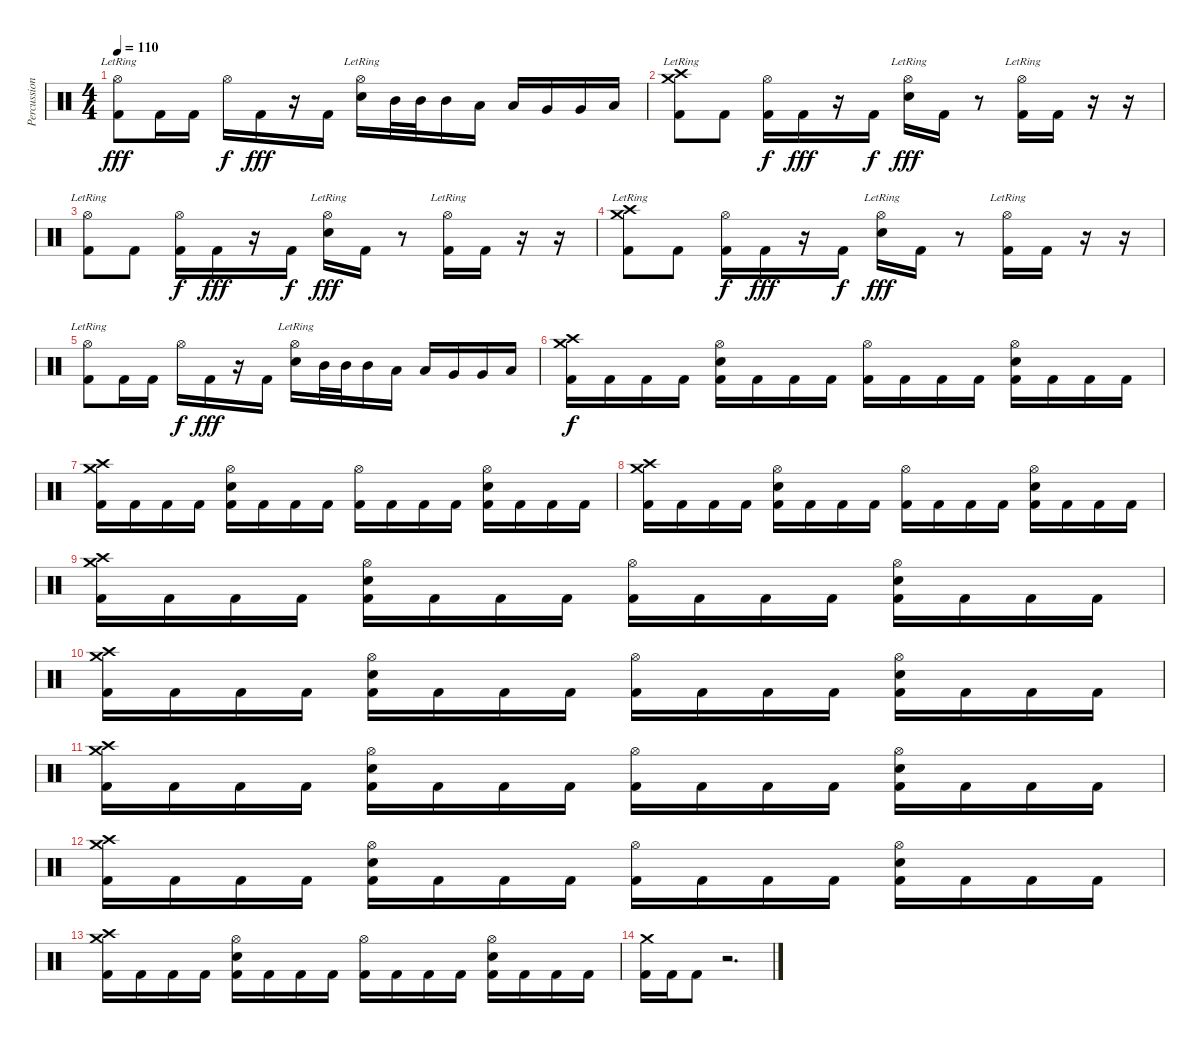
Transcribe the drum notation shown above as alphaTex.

\track ("Percussions" "Percussion") {instrument percussion}
\staff {score}
\articulation defaults
\ts (4 4)
\tempo 110
\clef neutral
\ks c
("Hi-Hat (open)"{lr} "Kick (hit) 2").8{dy fff} "Kick (hit) 2".16 "Kick (hit) 2".16 "Hi-Hat (open)".16{dy f} "Kick (hit) 2".16{dy fff} r.16 "Kick (hit) 2".16 ("Hi-Hat (open)"{lr} "Electric Snare (hit)").16 "Mid Tom (hit)".32 "Mid Tom (hit)".32 "Mid Tom (hit)".16 "Low Tom (hit)".16 "Low Tom (hit)".16 "Very Low Tom (hit)".16 "Very Low Tom (hit)".16 "Low Floor Tom (hit)".16 |
("Crash high (hit)"{lr} "Crash medium (hit)"{lr} "Kick (hit) 2").8 "Kick (hit) 2".8 ("Hi-Hat (open)" "Kick (hit) 2").16{dy f} "Kick (hit) 2".16{dy fff} r.16 "Kick (hit) 2".16{dy f} ("Hi-Hat (open)"{lr} "Electric Snare (hit)").16{dy fff} "Kick (hit) 2".16 r.8 ("Hi-Hat (open)"{lr} "Kick (hit) 2").16 "Kick (hit) 2".16 r.16 r.16 |
("Hi-Hat (open)"{lr} "Kick (hit) 2").8 "Kick (hit) 2".8 ("Hi-Hat (open)" "Kick (hit) 2").16{dy f} "Kick (hit) 2".16{dy fff} r.16 "Kick (hit) 2".16{dy f} ("Hi-Hat (open)"{lr} "Electric Snare (hit)").16{dy fff} "Kick (hit) 2".16 r.8 ("Hi-Hat (open)"{lr} "Kick (hit) 2").16 "Kick (hit) 2".16 r.16 r.16 |
("Crash high (hit)"{lr} "Crash medium (hit)"{lr} "Kick (hit) 2").8 "Kick (hit) 2".8 ("Hi-Hat (open)" "Kick (hit) 2").16{dy f} "Kick (hit) 2".16{dy fff} r.16 "Kick (hit) 2".16{dy f} ("Hi-Hat (open)"{lr} "Electric Snare (hit)").16{dy fff} "Kick (hit) 2".16 r.8 ("Hi-Hat (open)"{lr} "Kick (hit) 2").16 "Kick (hit) 2".16 r.16 r.16 |
("Hi-Hat (open)"{lr} "Kick (hit) 2").8 "Kick (hit) 2".16 "Kick (hit) 2".16 "Hi-Hat (open)".16{dy f} "Kick (hit) 2".16{dy fff} r.16 "Kick (hit) 2".16 ("Hi-Hat (open)"{lr} "Electric Snare (hit)").16 "Mid Tom (hit)".32 "Mid Tom (hit)".32 "Mid Tom (hit)".16 "Low Tom (hit)".16 "Low Tom (hit)".16 "Very Low Tom (hit)".16 "Very Low Tom (hit)".16 "Low Floor Tom (hit)".16 |
("Crash medium (hit)" "Crash high (hit)" "Kick (hit) 2").16{dy f} "Kick (hit) 2".16 "Kick (hit) 2".16 "Kick (hit) 2".16 ("Hi-Hat (open)" "Electric Snare (hit)" "Kick (hit) 2").16 "Kick (hit) 2".16 "Kick (hit) 2".16 "Kick (hit) 2".16 ("Hi-Hat (open)" "Kick (hit) 2").16 "Kick (hit) 2".16 "Kick (hit) 2".16 "Kick (hit) 2".16 ("Hi-Hat (open)" "Electric Snare (hit)" "Kick (hit) 2").16 "Kick (hit) 2".16 "Kick (hit) 2".16 "Kick (hit) 2".16 |
("Crash medium (hit)" "Crash high (hit)" "Kick (hit) 2").16 "Kick (hit) 2".16 "Kick (hit) 2".16 "Kick (hit) 2".16 ("Hi-Hat (open)" "Electric Snare (hit)" "Kick (hit) 2").16 "Kick (hit) 2".16 "Kick (hit) 2".16 "Kick (hit) 2".16 ("Hi-Hat (open)" "Kick (hit) 2").16 "Kick (hit) 2".16 "Kick (hit) 2".16 "Kick (hit) 2".16 ("Hi-Hat (open)" "Electric Snare (hit)" "Kick (hit) 2").16 "Kick (hit) 2".16 "Kick (hit) 2".16 "Kick (hit) 2".16 |
("Crash medium (hit)" "Crash high (hit)" "Kick (hit) 2").16 "Kick (hit) 2".16 "Kick (hit) 2".16 "Kick (hit) 2".16 ("Hi-Hat (open)" "Electric Snare (hit)" "Kick (hit) 2").16 "Kick (hit) 2".16 "Kick (hit) 2".16 "Kick (hit) 2".16 ("Hi-Hat (open)" "Kick (hit) 2").16 "Kick (hit) 2".16 "Kick (hit) 2".16 "Kick (hit) 2".16 ("Hi-Hat (open)" "Electric Snare (hit)" "Kick (hit) 2").16 "Kick (hit) 2".16 "Kick (hit) 2".16 "Kick (hit) 2".16 |
("Crash medium (hit)" "Crash high (hit)" "Kick (hit) 2").16 "Kick (hit) 2".16 "Kick (hit) 2".16 "Kick (hit) 2".16 ("Hi-Hat (open)" "Electric Snare (hit)" "Kick (hit) 2").16 "Kick (hit) 2".16 "Kick (hit) 2".16 "Kick (hit) 2".16 ("Hi-Hat (open)" "Kick (hit) 2").16 "Kick (hit) 2".16 "Kick (hit) 2".16 "Kick (hit) 2".16 ("Hi-Hat (open)" "Electric Snare (hit)" "Kick (hit) 2").16 "Kick (hit) 2".16 "Kick (hit) 2".16 "Kick (hit) 2".16 |
("Crash medium (hit)" "Crash high (hit)" "Kick (hit) 2").16 "Kick (hit) 2".16 "Kick (hit) 2".16 "Kick (hit) 2".16 ("Hi-Hat (open)" "Electric Snare (hit)" "Kick (hit) 2").16 "Kick (hit) 2".16 "Kick (hit) 2".16 "Kick (hit) 2".16 ("Hi-Hat (open)" "Kick (hit) 2").16 "Kick (hit) 2".16 "Kick (hit) 2".16 "Kick (hit) 2".16 ("Hi-Hat (open)" "Electric Snare (hit)" "Kick (hit) 2").16 "Kick (hit) 2".16 "Kick (hit) 2".16 "Kick (hit) 2".16 |
("Crash medium (hit)" "Crash high (hit)" "Kick (hit) 2").16 "Kick (hit) 2".16 "Kick (hit) 2".16 "Kick (hit) 2".16 ("Hi-Hat (open)" "Electric Snare (hit)" "Kick (hit) 2").16 "Kick (hit) 2".16 "Kick (hit) 2".16 "Kick (hit) 2".16 ("Hi-Hat (open)" "Kick (hit) 2").16 "Kick (hit) 2".16 "Kick (hit) 2".16 "Kick (hit) 2".16 ("Hi-Hat (open)" "Electric Snare (hit)" "Kick (hit) 2").16 "Kick (hit) 2".16 "Kick (hit) 2".16 "Kick (hit) 2".16 |
("Crash medium (hit)" "Crash high (hit)" "Kick (hit) 2").16 "Kick (hit) 2".16 "Kick (hit) 2".16 "Kick (hit) 2".16 ("Hi-Hat (open)" "Electric Snare (hit)" "Kick (hit) 2").16 "Kick (hit) 2".16 "Kick (hit) 2".16 "Kick (hit) 2".16 ("Hi-Hat (open)" "Kick (hit) 2").16 "Kick (hit) 2".16 "Kick (hit) 2".16 "Kick (hit) 2".16 ("Hi-Hat (open)" "Electric Snare (hit)" "Kick (hit) 2").16 "Kick (hit) 2".16 "Kick (hit) 2".16 "Kick (hit) 2".16 |
("Crash medium (hit)" "Crash high (hit)" "Kick (hit) 2").16 "Kick (hit) 2".16 "Kick (hit) 2".16 "Kick (hit) 2".16 ("Hi-Hat (open)" "Electric Snare (hit)" "Kick (hit) 2").16 "Kick (hit) 2".16 "Kick (hit) 2".16 "Kick (hit) 2".16 ("Hi-Hat (open)" "Kick (hit) 2").16 "Kick (hit) 2".16 "Kick (hit) 2".16 "Kick (hit) 2".16 ("Hi-Hat (open)" "Electric Snare (hit)" "Kick (hit) 2").16 "Kick (hit) 2".16 "Kick (hit) 2".16 "Kick (hit) 2".16 |
("Crash medium (hit)" "Kick (hit) 2").16 "Kick (hit) 2".16 "Kick (hit) 2".8 r.2{d}
